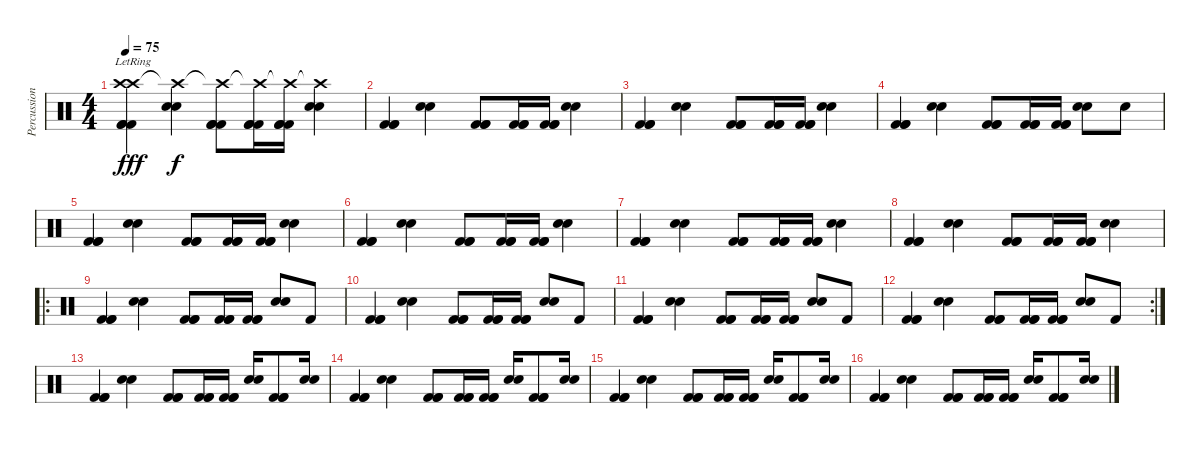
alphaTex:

\track ("Percussions" "Percussion") {instrument percussion}
\staff {score}
\articulation defaults
\ts (4 4)
\tempo 75
\clef neutral
\ks c
("Crash high (hit)"{lr} "Crash high (hit)" "Kick (hit) 2" "Kick (hit) 2" "Kick (hit) 2").4{dy fff} ("Crash high (hit)"{t} "Snare (hit) 2" "Snare (hit) 2").4{dy f} ("Crash high (hit)"{t} "Kick (hit) 2" "Kick (hit) 2" "Kick (hit) 2").8 ("Crash high (hit)"{t} "Kick (hit) 2" "Kick (hit) 2" "Kick (hit) 2").16 ("Crash high (hit)"{t} "Kick (hit) 2" "Kick (hit) 2" "Kick (hit) 2").16 ("Crash high (hit)"{t} "Snare (hit) 2" "Snare (hit) 2").4 |
("Kick (hit) 2" "Kick (hit) 2" "Kick (hit) 2").4 ("Snare (hit) 2" "Snare (hit) 2").4 ("Kick (hit) 2" "Kick (hit) 2" "Kick (hit) 2").8 ("Kick (hit) 2" "Kick (hit) 2" "Kick (hit) 2").16 ("Kick (hit) 2" "Kick (hit) 2" "Kick (hit) 2").16 ("Snare (hit) 2" "Snare (hit) 2").4 |
("Kick (hit) 2" "Kick (hit) 2" "Kick (hit) 2").4 ("Snare (hit) 2" "Snare (hit) 2").4 ("Kick (hit) 2" "Kick (hit) 2" "Kick (hit) 2").8 ("Kick (hit) 2" "Kick (hit) 2" "Kick (hit) 2").16 ("Kick (hit) 2" "Kick (hit) 2" "Kick (hit) 2").16 ("Snare (hit) 2" "Snare (hit) 2").4 |
("Kick (hit) 2" "Kick (hit) 2" "Kick (hit) 2").4 ("Snare (hit) 2" "Snare (hit) 2").4 ("Kick (hit) 2" "Kick (hit) 2" "Kick (hit) 2").8 ("Kick (hit) 2" "Kick (hit) 2" "Kick (hit) 2").16 ("Kick (hit) 2" "Kick (hit) 2" "Kick (hit) 2").16 ("Snare (hit) 2" "Snare (hit) 2").8 "Snare (hit) 2".8 |
("Kick (hit) 2" "Kick (hit) 2" "Kick (hit) 2").4 ("Snare (hit) 2" "Snare (hit) 2").4 ("Kick (hit) 2" "Kick (hit) 2" "Kick (hit) 2").8 ("Kick (hit) 2" "Kick (hit) 2" "Kick (hit) 2").16 ("Kick (hit) 2" "Kick (hit) 2" "Kick (hit) 2").16 ("Snare (hit) 2" "Snare (hit) 2").4 |
("Kick (hit) 2" "Kick (hit) 2" "Kick (hit) 2").4 ("Snare (hit) 2" "Snare (hit) 2").4 ("Kick (hit) 2" "Kick (hit) 2" "Kick (hit) 2").8 ("Kick (hit) 2" "Kick (hit) 2" "Kick (hit) 2").16 ("Kick (hit) 2" "Kick (hit) 2" "Kick (hit) 2").16 ("Snare (hit) 2" "Snare (hit) 2").4 |
("Kick (hit) 2" "Kick (hit) 2" "Kick (hit) 2").4 ("Snare (hit) 2" "Snare (hit) 2").4 ("Kick (hit) 2" "Kick (hit) 2" "Kick (hit) 2").8 ("Kick (hit) 2" "Kick (hit) 2" "Kick (hit) 2").16 ("Kick (hit) 2" "Kick (hit) 2" "Kick (hit) 2").16 ("Snare (hit) 2" "Snare (hit) 2").4 |
("Kick (hit) 2" "Kick (hit) 2" "Kick (hit) 2").4 ("Snare (hit) 2" "Snare (hit) 2").4 ("Kick (hit) 2" "Kick (hit) 2" "Kick (hit) 2").8 ("Kick (hit) 2" "Kick (hit) 2" "Kick (hit) 2").16 ("Kick (hit) 2" "Kick (hit) 2" "Kick (hit) 2").16 ("Snare (hit) 2" "Snare (hit) 2").4 |
\ro
("Kick (hit) 2" "Kick (hit) 2" "Kick (hit) 2").4 ("Snare (hit) 2" "Snare (hit) 2").4 ("Kick (hit) 2" "Kick (hit) 2" "Kick (hit) 2").8 ("Kick (hit) 2" "Kick (hit) 2" "Kick (hit) 2").16 ("Kick (hit) 2" "Kick (hit) 2" "Kick (hit) 2").16 ("Snare (hit) 2" "Snare (hit) 2").8 "Kick (hit) 2".8 |
("Kick (hit) 2" "Kick (hit) 2" "Kick (hit) 2").4 ("Snare (hit) 2" "Snare (hit) 2").4 ("Kick (hit) 2" "Kick (hit) 2" "Kick (hit) 2").8 ("Kick (hit) 2" "Kick (hit) 2" "Kick (hit) 2").16 ("Kick (hit) 2" "Kick (hit) 2" "Kick (hit) 2").16 ("Snare (hit) 2" "Snare (hit) 2").8 "Kick (hit) 2".8 |
("Kick (hit) 2" "Kick (hit) 2" "Kick (hit) 2").4 ("Snare (hit) 2" "Snare (hit) 2").4 ("Kick (hit) 2" "Kick (hit) 2" "Kick (hit) 2").8 ("Kick (hit) 2" "Kick (hit) 2" "Kick (hit) 2").16 ("Kick (hit) 2" "Kick (hit) 2" "Kick (hit) 2").16 ("Snare (hit) 2" "Snare (hit) 2").8 "Kick (hit) 2".8 |
\rc 2
("Kick (hit) 2" "Kick (hit) 2" "Kick (hit) 2").4 ("Snare (hit) 2" "Snare (hit) 2").4 ("Kick (hit) 2" "Kick (hit) 2" "Kick (hit) 2").8 ("Kick (hit) 2" "Kick (hit) 2" "Kick (hit) 2").16 ("Kick (hit) 2" "Kick (hit) 2" "Kick (hit) 2").16 ("Snare (hit) 2" "Snare (hit) 2").8 "Kick (hit) 2".8 |
("Kick (hit) 2" "Kick (hit) 2" "Kick (hit) 2").4 ("Snare (hit) 2" "Snare (hit) 2").4 ("Kick (hit) 2" "Kick (hit) 2" "Kick (hit) 2").8 ("Kick (hit) 2" "Kick (hit) 2" "Kick (hit) 2").16 ("Kick (hit) 2" "Kick (hit) 2" "Kick (hit) 2").16 ("Snare (hit) 2" "Snare (hit) 2").16 ("Kick (hit) 2" "Kick (hit) 2" "Kick (hit) 2").8 ("Snare (hit) 2" "Snare (hit) 2").16 |
("Kick (hit) 2" "Kick (hit) 2" "Kick (hit) 2").4 ("Snare (hit) 2" "Snare (hit) 2").4 ("Kick (hit) 2" "Kick (hit) 2" "Kick (hit) 2").8 ("Kick (hit) 2" "Kick (hit) 2" "Kick (hit) 2").16 ("Kick (hit) 2" "Kick (hit) 2" "Kick (hit) 2").16 ("Snare (hit) 2" "Snare (hit) 2").16 ("Kick (hit) 2" "Kick (hit) 2" "Kick (hit) 2").8 ("Snare (hit) 2" "Snare (hit) 2").16 |
("Kick (hit) 2" "Kick (hit) 2" "Kick (hit) 2").4 ("Snare (hit) 2" "Snare (hit) 2").4 ("Kick (hit) 2" "Kick (hit) 2" "Kick (hit) 2").8 ("Kick (hit) 2" "Kick (hit) 2" "Kick (hit) 2").16 ("Kick (hit) 2" "Kick (hit) 2" "Kick (hit) 2").16 ("Snare (hit) 2" "Snare (hit) 2").16 ("Kick (hit) 2" "Kick (hit) 2" "Kick (hit) 2").8 ("Snare (hit) 2" "Snare (hit) 2").16 |
("Kick (hit) 2" "Kick (hit) 2" "Kick (hit) 2").4 ("Snare (hit) 2" "Snare (hit) 2").4 ("Kick (hit) 2" "Kick (hit) 2" "Kick (hit) 2").8 ("Kick (hit) 2" "Kick (hit) 2" "Kick (hit) 2").16 ("Kick (hit) 2" "Kick (hit) 2" "Kick (hit) 2").16 ("Snare (hit) 2" "Snare (hit) 2").16 ("Kick (hit) 2" "Kick (hit) 2" "Kick (hit) 2").8 ("Snare (hit) 2" "Snare (hit) 2").16
